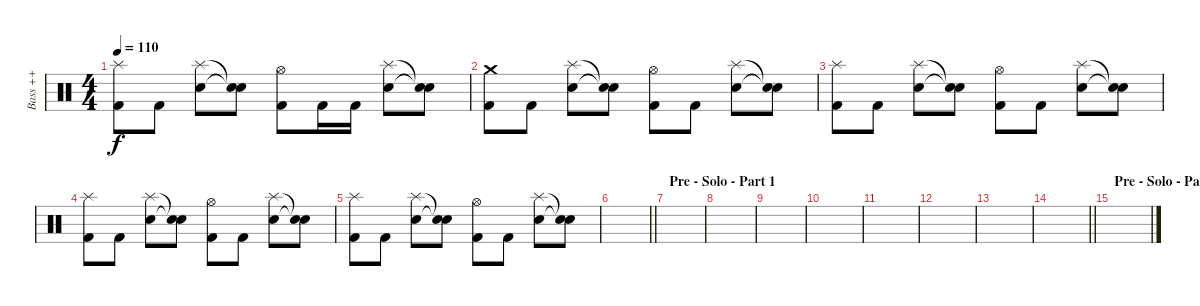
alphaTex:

\track ("  Bass ++" "  Bass ++") {instrument percussion}
\staff {score}
\articulation defaults
\ts (4 4)
\tempo 110
\clef neutral
\ks c
("Splash (hit)" "Kick (hit) 2").8{dy f} "Kick (hit) 2".8 ("Splash (hit)" "Snare (hit) 2").8 ("Snare (hit)"{t} "Snare (hit)"{t}).8 ("Hi-Hat (open)" "Kick (hit) 2").8 "Kick (hit) 2".16 "Kick (hit) 2".16 ("Splash (hit)" "Snare (hit) 2").8 ("Snare (hit)"{t} "Snare (hit)"{t}).8 |
("Crash medium (hit)" "Kick (hit) 2").8 "Kick (hit) 2".8 ("Splash (hit)" "Snare (hit) 2").8 ("Snare (hit)"{t} "Snare (hit)"{t}).8 ("Hi-Hat (open)" "Kick (hit) 2").8 "Kick (hit) 2".8 ("Splash (hit)" "Snare (hit) 2").8 ("Snare (hit)"{t} "Snare (hit)"{t}).8 |
("Splash (hit)" "Kick (hit) 2").8 "Kick (hit) 2".8 ("Splash (hit)" "Snare (hit) 2").8 ("Snare (hit)"{t} "Snare (hit)"{t}).8 ("Hi-Hat (open)" "Kick (hit) 2").8 "Kick (hit) 2".8 ("Splash (hit)" "Snare (hit) 2").8 ("Snare (hit)"{t} "Snare (hit)"{t}).8 |
("Splash (hit)" "Kick (hit) 2").8 "Kick (hit) 2".8 ("Splash (hit)" "Snare (hit) 2").8 ("Snare (hit)"{t} "Snare (hit)"{t}).8 ("Hi-Hat (open)" "Kick (hit) 2").8 "Kick (hit) 2".8 ("Splash (hit)" "Snare (hit) 2").8 ("Snare (hit)"{t} "Snare (hit)"{t}).8 |
("Splash (hit)" "Kick (hit) 2").8 "Kick (hit) 2".8 ("Splash (hit)" "Snare (hit) 2").8 ("Snare (hit)"{t} "Snare (hit)"{t}).8 ("Hi-Hat (open)" "Kick (hit) 2").8 "Kick (hit) 2".8 ("Splash (hit)" "Snare (hit) 2").8 ("Snare (hit)"{t} "Snare (hit)"{t}).8 |
\barLineRight lightlight
|
\section ("" "Pre - Solo - Part 1")
|
|
|
|
|
|
|
\barLineRight lightlight
|
\section ("" "Pre - Solo - Part 2")
